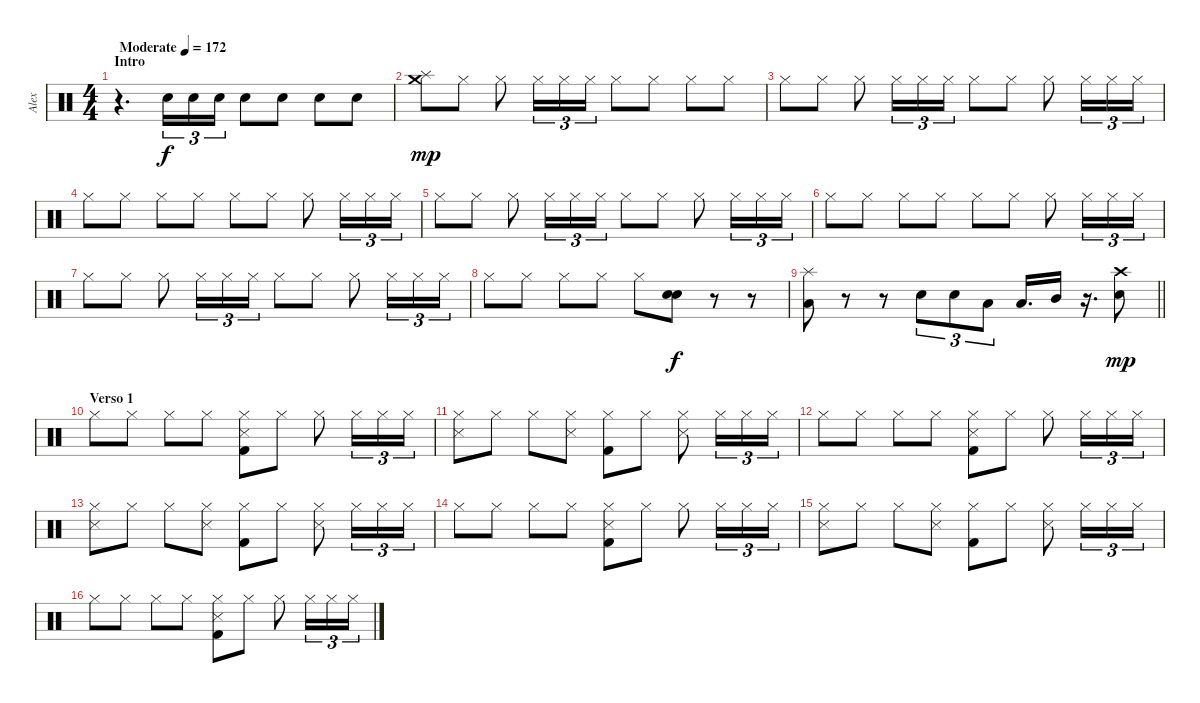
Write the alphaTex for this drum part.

\track ("Alex" "Alex") {instrument percussion}
\staff {score}
\articulation defaults
\ts (4 4)
\section ("" "Intro")
\tempo (172 "Moderate")
\clef neutral
\ks c
r.4{d dy f} "Electric Snare (hit)".16{tu (3 2)} "Electric Snare (hit)".16{tu (3 2)} "Electric Snare (hit)".16{tu (3 2)} "Electric Snare (hit)".8 "Electric Snare (hit)".8 "Electric Snare (hit)".8 "Electric Snare (hit)".8 |
("Splash (hit)" "Crash medium (hit)").8{dy mp} "Hi-Hat (closed)".8 "Hi-Hat (closed)".8 "Hi-Hat (closed)".16{tu (3 2)} "Hi-Hat (closed)".16{tu (3 2)} "Hi-Hat (closed)".16{tu (3 2)} "Hi-Hat (closed)".8 "Hi-Hat (closed)".8 "Hi-Hat (closed)".8 "Hi-Hat (closed)".8 |
"Hi-Hat (closed)".8 "Hi-Hat (closed)".8 "Hi-Hat (closed)".8 "Hi-Hat (closed)".16{tu (3 2)} "Hi-Hat (closed)".16{tu (3 2)} "Hi-Hat (closed)".16{tu (3 2)} "Hi-Hat (closed)".8 "Hi-Hat (closed)".8 "Hi-Hat (closed)".8 "Hi-Hat (closed)".16{tu (3 2)} "Hi-Hat (closed)".16{tu (3 2)} "Hi-Hat (closed)".16{tu (3 2)} |
"Hi-Hat (closed)".8 "Hi-Hat (closed)".8 "Hi-Hat (closed)".8 "Hi-Hat (closed)".8 "Hi-Hat (closed)".8 "Hi-Hat (closed)".8 "Hi-Hat (closed)".8 "Hi-Hat (closed)".16{tu (3 2)} "Hi-Hat (closed)".16{tu (3 2)} "Hi-Hat (closed)".16{tu (3 2)} |
"Hi-Hat (closed)".8 "Hi-Hat (closed)".8 "Hi-Hat (closed)".8 "Hi-Hat (closed)".16{tu (3 2)} "Hi-Hat (closed)".16{tu (3 2)} "Hi-Hat (closed)".16{tu (3 2)} "Hi-Hat (closed)".8 "Hi-Hat (closed)".8 "Hi-Hat (closed)".8 "Hi-Hat (closed)".16{tu (3 2)} "Hi-Hat (closed)".16{tu (3 2)} "Hi-Hat (closed)".16{tu (3 2)} |
"Hi-Hat (closed)".8 "Hi-Hat (closed)".8 "Hi-Hat (closed)".8 "Hi-Hat (closed)".8 "Hi-Hat (closed)".8 "Hi-Hat (closed)".8 "Hi-Hat (closed)".8 "Hi-Hat (closed)".16{tu (3 2)} "Hi-Hat (closed)".16{tu (3 2)} "Hi-Hat (closed)".16{tu (3 2)} |
"Hi-Hat (closed)".8 "Hi-Hat (closed)".8 "Hi-Hat (closed)".8 "Hi-Hat (closed)".16{tu (3 2)} "Hi-Hat (closed)".16{tu (3 2)} "Hi-Hat (closed)".16{tu (3 2)} "Hi-Hat (closed)".8 "Hi-Hat (closed)".8 "Hi-Hat (closed)".8 "Hi-Hat (closed)".16{tu (3 2)} "Hi-Hat (closed)".16{tu (3 2)} "Hi-Hat (closed)".16{tu (3 2)} |
"Hi-Hat (closed)".8 "Hi-Hat (closed)".8 "Hi-Hat (closed)".8 "Hi-Hat (closed)".8 "Hi-Hat (closed)".8 ("Electric Snare (hit)" "Electric Snare (hit)").8{dy f} r.8 r.8 |
\barLineRight lightlight
("Splash (hit)" "Low Tom (hit)").8 r.8 r.8 "Electric Snare (hit)".8{tu (3 2)} "Electric Snare (hit)".8{tu (3 2)} "Low Tom (hit)".8{tu (3 2)} "Low Tom (hit)".16{d} "Mid Tom (hit)".16 r.16{d} ("Crash high (hit)" "Electric Snare (hit)").8{dy mp} |
\section ("" "Verso 1")
"Hi-Hat (closed)".8 "Hi-Hat (closed)".8 "Hi-Hat (closed)".8 "Hi-Hat (closed)".8 ("Hi-Hat (closed)" "Snare (side stick) 3" "Kick (hit) 2").8 "Hi-Hat (closed)".8 "Hi-Hat (closed)".8 "Hi-Hat (closed)".16{tu (3 2)} "Hi-Hat (closed)".16{tu (3 2)} "Hi-Hat (closed)".16{tu (3 2)} |
("Hi-Hat (closed)" "Snare (side stick) 3").8 "Hi-Hat (closed)".8 "Hi-Hat (closed)".8 ("Hi-Hat (closed)" "Snare (side stick) 3").8 ("Hi-Hat (closed)" "Kick (hit) 2").8 "Hi-Hat (closed)".8 ("Hi-Hat (closed)" "Snare (side stick) 3").8 "Hi-Hat (closed)".16{tu (3 2)} "Hi-Hat (closed)".16{tu (3 2)} "Hi-Hat (closed)".16{tu (3 2)} |
"Hi-Hat (closed)".8 "Hi-Hat (closed)".8 "Hi-Hat (closed)".8 "Hi-Hat (closed)".8 ("Hi-Hat (closed)" "Snare (side stick) 3" "Kick (hit) 2").8 "Hi-Hat (closed)".8 "Hi-Hat (closed)".8 "Hi-Hat (closed)".16{tu (3 2)} "Hi-Hat (closed)".16{tu (3 2)} "Hi-Hat (closed)".16{tu (3 2)} |
("Hi-Hat (closed)" "Snare (side stick) 3").8 "Hi-Hat (closed)".8 "Hi-Hat (closed)".8 ("Hi-Hat (closed)" "Snare (side stick) 3").8 ("Hi-Hat (closed)" "Kick (hit) 2").8 "Hi-Hat (closed)".8 ("Hi-Hat (closed)" "Snare (side stick) 3").8 "Hi-Hat (closed)".16{tu (3 2)} "Hi-Hat (closed)".16{tu (3 2)} "Hi-Hat (closed)".16{tu (3 2)} |
"Hi-Hat (closed)".8 "Hi-Hat (closed)".8 "Hi-Hat (closed)".8 "Hi-Hat (closed)".8 ("Hi-Hat (closed)" "Snare (side stick) 3" "Kick (hit) 2").8 "Hi-Hat (closed)".8 "Hi-Hat (closed)".8 "Hi-Hat (closed)".16{tu (3 2)} "Hi-Hat (closed)".16{tu (3 2)} "Hi-Hat (closed)".16{tu (3 2)} |
("Hi-Hat (closed)" "Snare (side stick) 3").8 "Hi-Hat (closed)".8 "Hi-Hat (closed)".8 ("Hi-Hat (closed)" "Snare (side stick) 3").8 ("Hi-Hat (closed)" "Kick (hit) 2").8 "Hi-Hat (closed)".8 ("Hi-Hat (closed)" "Snare (side stick) 3").8 "Hi-Hat (closed)".16{tu (3 2)} "Hi-Hat (closed)".16{tu (3 2)} "Hi-Hat (closed)".16{tu (3 2)} |
"Hi-Hat (closed)".8 "Hi-Hat (closed)".8 "Hi-Hat (closed)".8 "Hi-Hat (closed)".8 ("Hi-Hat (closed)" "Snare (side stick) 3" "Kick (hit) 2").8 "Hi-Hat (closed)".8 "Hi-Hat (closed)".8 "Hi-Hat (closed)".16{tu (3 2)} "Hi-Hat (closed)".16{tu (3 2)} "Hi-Hat (closed)".16{tu (3 2)}
